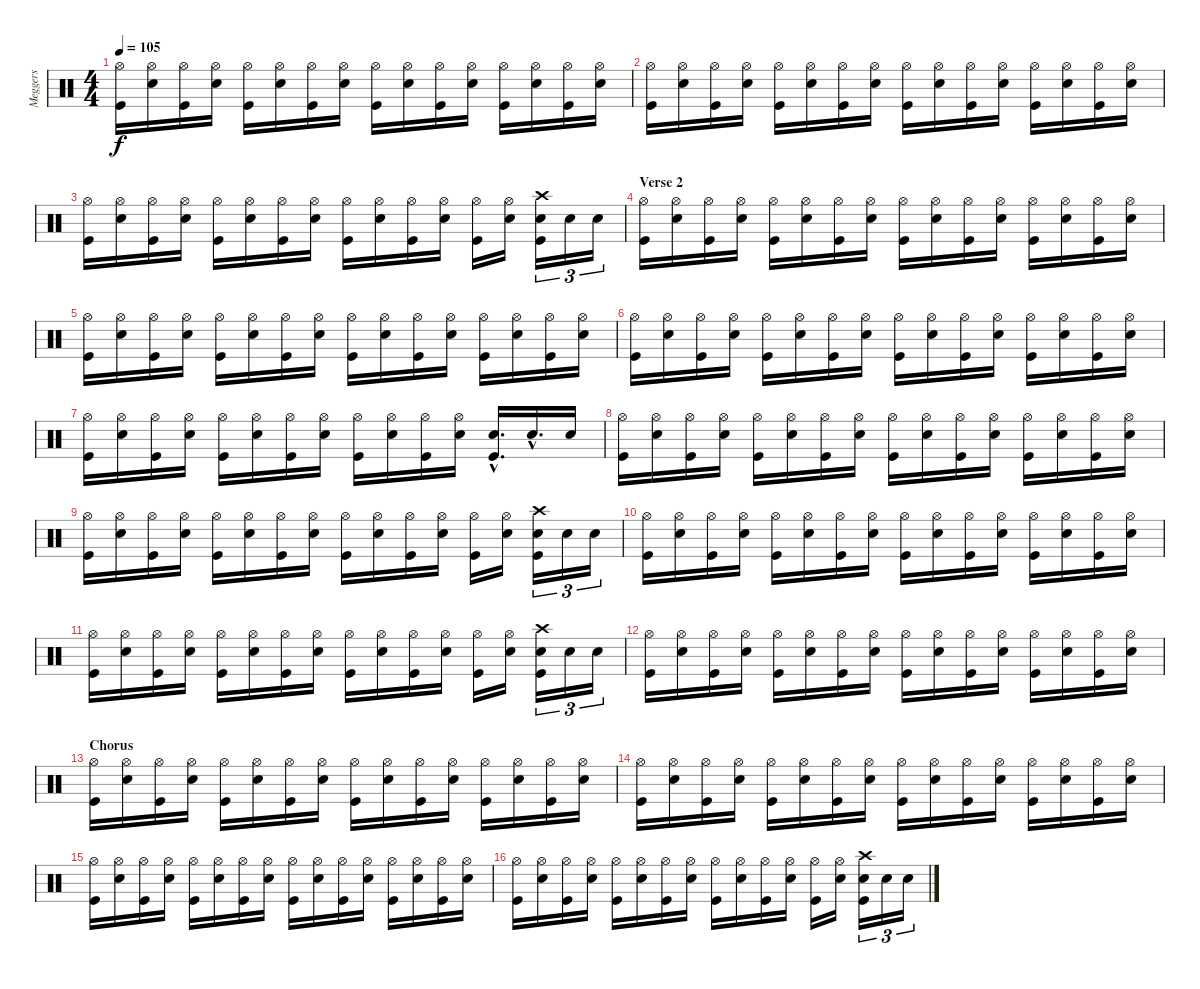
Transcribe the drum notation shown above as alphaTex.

\track ("Meggers" "Meggers") {instrument percussion}
\staff {score}
\articulation defaults
\ts (4 4)
\tempo 105
\clef neutral
\ks c
("Hi-Hat (open)" "Kick (hit)").16{dy f} ("Hi-Hat (open)" "Snare (hit) 2").16 ("Hi-Hat (open)" "Kick (hit)").16 ("Hi-Hat (open)" "Snare (hit) 2").16 ("Hi-Hat (open)" "Kick (hit)").16 ("Hi-Hat (open)" "Snare (hit) 2").16 ("Hi-Hat (open)" "Kick (hit)").16 ("Hi-Hat (open)" "Snare (hit) 2").16 ("Hi-Hat (open)" "Kick (hit)").16 ("Hi-Hat (open)" "Snare (hit) 2").16 ("Hi-Hat (open)" "Kick (hit)").16 ("Hi-Hat (open)" "Snare (hit) 2").16 ("Hi-Hat (open)" "Kick (hit)").16 ("Hi-Hat (open)" "Snare (hit) 2").16 ("Hi-Hat (open)" "Kick (hit)").16 ("Hi-Hat (open)" "Snare (hit) 2").16 |
("Hi-Hat (open)" "Kick (hit)").16 ("Hi-Hat (open)" "Snare (hit) 2").16 ("Hi-Hat (open)" "Kick (hit)").16 ("Hi-Hat (open)" "Snare (hit) 2").16 ("Hi-Hat (open)" "Kick (hit)").16 ("Hi-Hat (open)" "Snare (hit) 2").16 ("Hi-Hat (open)" "Kick (hit)").16 ("Hi-Hat (open)" "Snare (hit) 2").16 ("Hi-Hat (open)" "Kick (hit)").16 ("Hi-Hat (open)" "Snare (hit) 2").16 ("Hi-Hat (open)" "Kick (hit)").16 ("Hi-Hat (open)" "Snare (hit) 2").16 ("Hi-Hat (open)" "Kick (hit)").16 ("Hi-Hat (open)" "Snare (hit) 2").16 ("Hi-Hat (open)" "Kick (hit)").16 ("Hi-Hat (open)" "Snare (hit) 2").16 |
("Hi-Hat (open)" "Kick (hit)").16 ("Hi-Hat (open)" "Snare (hit) 2").16 ("Hi-Hat (open)" "Kick (hit)").16 ("Hi-Hat (open)" "Snare (hit) 2").16 ("Hi-Hat (open)" "Kick (hit)").16 ("Hi-Hat (open)" "Snare (hit) 2").16 ("Hi-Hat (open)" "Kick (hit)").16 ("Hi-Hat (open)" "Snare (hit) 2").16 ("Hi-Hat (open)" "Kick (hit)").16 ("Hi-Hat (open)" "Snare (hit) 2").16 ("Hi-Hat (open)" "Kick (hit)").16 ("Hi-Hat (open)" "Snare (hit) 2").16 ("Hi-Hat (open)" "Kick (hit)").16 ("Hi-Hat (open)" "Snare (hit) 2").16 ("Crash high (hit)" "Snare (hit) 2" "Kick (hit)").16{tu (3 2)} "Snare (hit) 2".16{tu (3 2)} "Snare (hit) 2".16{tu (3 2)} |
\section ("" "Verse 2")
("Hi-Hat (open)" "Kick (hit)").16 ("Hi-Hat (open)" "Snare (hit) 2").16 ("Hi-Hat (open)" "Kick (hit)").16 ("Hi-Hat (open)" "Snare (hit) 2").16 ("Hi-Hat (open)" "Kick (hit)").16 ("Hi-Hat (open)" "Snare (hit) 2").16 ("Hi-Hat (open)" "Kick (hit)").16 ("Hi-Hat (open)" "Snare (hit) 2").16 ("Hi-Hat (open)" "Kick (hit)").16 ("Hi-Hat (open)" "Snare (hit) 2").16 ("Hi-Hat (open)" "Kick (hit)").16 ("Hi-Hat (open)" "Snare (hit) 2").16 ("Hi-Hat (open)" "Kick (hit)").16 ("Hi-Hat (open)" "Snare (hit) 2").16 ("Hi-Hat (open)" "Kick (hit)").16 ("Hi-Hat (open)" "Snare (hit) 2").16 |
("Hi-Hat (open)" "Kick (hit)").16 ("Hi-Hat (open)" "Snare (hit) 2").16 ("Hi-Hat (open)" "Kick (hit)").16 ("Hi-Hat (open)" "Snare (hit) 2").16 ("Hi-Hat (open)" "Kick (hit)").16 ("Hi-Hat (open)" "Snare (hit) 2").16 ("Hi-Hat (open)" "Kick (hit)").16 ("Hi-Hat (open)" "Snare (hit) 2").16 ("Hi-Hat (open)" "Kick (hit)").16 ("Hi-Hat (open)" "Snare (hit) 2").16 ("Hi-Hat (open)" "Kick (hit)").16 ("Hi-Hat (open)" "Snare (hit) 2").16 ("Hi-Hat (open)" "Kick (hit)").16 ("Hi-Hat (open)" "Snare (hit) 2").16 ("Hi-Hat (open)" "Kick (hit)").16 ("Hi-Hat (open)" "Snare (hit) 2").16 |
("Hi-Hat (open)" "Kick (hit)").16 ("Hi-Hat (open)" "Snare (hit) 2").16 ("Hi-Hat (open)" "Kick (hit)").16 ("Hi-Hat (open)" "Snare (hit) 2").16 ("Hi-Hat (open)" "Kick (hit)").16 ("Hi-Hat (open)" "Snare (hit) 2").16 ("Hi-Hat (open)" "Kick (hit)").16 ("Hi-Hat (open)" "Snare (hit) 2").16 ("Hi-Hat (open)" "Kick (hit)").16 ("Hi-Hat (open)" "Snare (hit) 2").16 ("Hi-Hat (open)" "Kick (hit)").16 ("Hi-Hat (open)" "Snare (hit) 2").16 ("Hi-Hat (open)" "Kick (hit)").16 ("Hi-Hat (open)" "Snare (hit) 2").16 ("Hi-Hat (open)" "Kick (hit)").16 ("Hi-Hat (open)" "Snare (hit) 2").16 |
("Hi-Hat (open)" "Kick (hit)").16 ("Hi-Hat (open)" "Snare (hit) 2").16 ("Hi-Hat (open)" "Kick (hit)").16 ("Hi-Hat (open)" "Snare (hit) 2").16 ("Hi-Hat (open)" "Kick (hit)").16 ("Hi-Hat (open)" "Snare (hit) 2").16 ("Hi-Hat (open)" "Kick (hit)").16 ("Hi-Hat (open)" "Snare (hit) 2").16 ("Hi-Hat (open)" "Kick (hit)").16 ("Hi-Hat (open)" "Snare (hit) 2").16 ("Hi-Hat (open)" "Kick (hit)").16 ("Hi-Hat (open)" "Snare (hit) 2").16 ("Snare (hit) 2"{hac} "Kick (hit)"{hac}).16{d} "Snare (hit) 2"{hac}.16{d} "Snare (hit) 2".16 |
("Hi-Hat (open)" "Kick (hit)").16 ("Hi-Hat (open)" "Snare (hit) 2").16 ("Hi-Hat (open)" "Kick (hit)").16 ("Hi-Hat (open)" "Snare (hit) 2").16 ("Hi-Hat (open)" "Kick (hit)").16 ("Hi-Hat (open)" "Snare (hit) 2").16 ("Hi-Hat (open)" "Kick (hit)").16 ("Hi-Hat (open)" "Snare (hit) 2").16 ("Hi-Hat (open)" "Kick (hit)").16 ("Hi-Hat (open)" "Snare (hit) 2").16 ("Hi-Hat (open)" "Kick (hit)").16 ("Hi-Hat (open)" "Snare (hit) 2").16 ("Hi-Hat (open)" "Kick (hit)").16 ("Hi-Hat (open)" "Snare (hit) 2").16 ("Hi-Hat (open)" "Kick (hit)").16 ("Hi-Hat (open)" "Snare (hit) 2").16 |
("Hi-Hat (open)" "Kick (hit)").16 ("Hi-Hat (open)" "Snare (hit) 2").16 ("Hi-Hat (open)" "Kick (hit)").16 ("Hi-Hat (open)" "Snare (hit) 2").16 ("Hi-Hat (open)" "Kick (hit)").16 ("Hi-Hat (open)" "Snare (hit) 2").16 ("Hi-Hat (open)" "Kick (hit)").16 ("Hi-Hat (open)" "Snare (hit) 2").16 ("Hi-Hat (open)" "Kick (hit)").16 ("Hi-Hat (open)" "Snare (hit) 2").16 ("Hi-Hat (open)" "Kick (hit)").16 ("Hi-Hat (open)" "Snare (hit) 2").16 ("Hi-Hat (open)" "Kick (hit)").16 ("Hi-Hat (open)" "Snare (hit) 2").16 ("Crash high (hit)" "Snare (hit) 2" "Kick (hit)").16{tu (3 2)} "Snare (hit) 2".16{tu (3 2)} "Snare (hit) 2".16{tu (3 2)} |
("Hi-Hat (open)" "Kick (hit)").16 ("Hi-Hat (open)" "Snare (hit) 2").16 ("Hi-Hat (open)" "Kick (hit)").16 ("Hi-Hat (open)" "Snare (hit) 2").16 ("Hi-Hat (open)" "Kick (hit)").16 ("Hi-Hat (open)" "Snare (hit) 2").16 ("Hi-Hat (open)" "Kick (hit)").16 ("Hi-Hat (open)" "Snare (hit) 2").16 ("Hi-Hat (open)" "Kick (hit)").16 ("Hi-Hat (open)" "Snare (hit) 2").16 ("Hi-Hat (open)" "Kick (hit)").16 ("Hi-Hat (open)" "Snare (hit) 2").16 ("Hi-Hat (open)" "Kick (hit)").16 ("Hi-Hat (open)" "Snare (hit) 2").16 ("Hi-Hat (open)" "Kick (hit)").16 ("Hi-Hat (open)" "Snare (hit) 2").16 |
("Hi-Hat (open)" "Kick (hit)").16 ("Hi-Hat (open)" "Snare (hit) 2").16 ("Hi-Hat (open)" "Kick (hit)").16 ("Hi-Hat (open)" "Snare (hit) 2").16 ("Hi-Hat (open)" "Kick (hit)").16 ("Hi-Hat (open)" "Snare (hit) 2").16 ("Hi-Hat (open)" "Kick (hit)").16 ("Hi-Hat (open)" "Snare (hit) 2").16 ("Hi-Hat (open)" "Kick (hit)").16 ("Hi-Hat (open)" "Snare (hit) 2").16 ("Hi-Hat (open)" "Kick (hit)").16 ("Hi-Hat (open)" "Snare (hit) 2").16 ("Hi-Hat (open)" "Kick (hit)").16 ("Hi-Hat (open)" "Snare (hit) 2").16 ("Crash high (hit)" "Snare (hit) 2" "Kick (hit)").16{tu (3 2)} "Snare (hit) 2".16{tu (3 2)} "Snare (hit) 2".16{tu (3 2)} |
("Hi-Hat (open)" "Kick (hit)").16 ("Hi-Hat (open)" "Snare (hit) 2").16 ("Hi-Hat (open)" "Kick (hit)").16 ("Hi-Hat (open)" "Snare (hit) 2").16 ("Hi-Hat (open)" "Kick (hit)").16 ("Hi-Hat (open)" "Snare (hit) 2").16 ("Hi-Hat (open)" "Kick (hit)").16 ("Hi-Hat (open)" "Snare (hit) 2").16 ("Hi-Hat (open)" "Kick (hit)").16 ("Hi-Hat (open)" "Snare (hit) 2").16 ("Hi-Hat (open)" "Kick (hit)").16 ("Hi-Hat (open)" "Snare (hit) 2").16 ("Hi-Hat (open)" "Kick (hit)").16 ("Hi-Hat (open)" "Snare (hit) 2").16 ("Hi-Hat (open)" "Kick (hit)").16 ("Hi-Hat (open)" "Snare (hit) 2").16 |
\section ("" "Chorus")
("Hi-Hat (open)" "Kick (hit)").16 ("Hi-Hat (open)" "Snare (hit) 2").16 ("Hi-Hat (open)" "Kick (hit)").16 ("Hi-Hat (open)" "Snare (hit) 2").16 ("Hi-Hat (open)" "Kick (hit)").16 ("Hi-Hat (open)" "Snare (hit) 2").16 ("Hi-Hat (open)" "Kick (hit)").16 ("Hi-Hat (open)" "Snare (hit) 2").16 ("Hi-Hat (open)" "Kick (hit)").16 ("Hi-Hat (open)" "Snare (hit) 2").16 ("Hi-Hat (open)" "Kick (hit)").16 ("Hi-Hat (open)" "Snare (hit) 2").16 ("Hi-Hat (open)" "Kick (hit)").16 ("Hi-Hat (open)" "Snare (hit) 2").16 ("Hi-Hat (open)" "Kick (hit)").16 ("Hi-Hat (open)" "Snare (hit) 2").16 |
("Hi-Hat (open)" "Kick (hit)").16 ("Hi-Hat (open)" "Snare (hit) 2").16 ("Hi-Hat (open)" "Kick (hit)").16 ("Hi-Hat (open)" "Snare (hit) 2").16 ("Hi-Hat (open)" "Kick (hit)").16 ("Hi-Hat (open)" "Snare (hit) 2").16 ("Hi-Hat (open)" "Kick (hit)").16 ("Hi-Hat (open)" "Snare (hit) 2").16 ("Hi-Hat (open)" "Kick (hit)").16 ("Hi-Hat (open)" "Snare (hit) 2").16 ("Hi-Hat (open)" "Kick (hit)").16 ("Hi-Hat (open)" "Snare (hit) 2").16 ("Hi-Hat (open)" "Kick (hit)").16 ("Hi-Hat (open)" "Snare (hit) 2").16 ("Hi-Hat (open)" "Kick (hit)").16 ("Hi-Hat (open)" "Snare (hit) 2").16 |
("Hi-Hat (open)" "Kick (hit)").16 ("Hi-Hat (open)" "Snare (hit) 2").16 ("Hi-Hat (open)" "Kick (hit)").16 ("Hi-Hat (open)" "Snare (hit) 2").16 ("Hi-Hat (open)" "Kick (hit)").16 ("Hi-Hat (open)" "Snare (hit) 2").16 ("Hi-Hat (open)" "Kick (hit)").16 ("Hi-Hat (open)" "Snare (hit) 2").16 ("Hi-Hat (open)" "Kick (hit)").16 ("Hi-Hat (open)" "Snare (hit) 2").16 ("Hi-Hat (open)" "Kick (hit)").16 ("Hi-Hat (open)" "Snare (hit) 2").16 ("Hi-Hat (open)" "Kick (hit)").16 ("Hi-Hat (open)" "Snare (hit) 2").16 ("Hi-Hat (open)" "Kick (hit)").16 ("Hi-Hat (open)" "Snare (hit) 2").16 |
("Hi-Hat (open)" "Kick (hit)").16 ("Hi-Hat (open)" "Snare (hit) 2").16 ("Hi-Hat (open)" "Kick (hit)").16 ("Hi-Hat (open)" "Snare (hit) 2").16 ("Hi-Hat (open)" "Kick (hit)").16 ("Hi-Hat (open)" "Snare (hit) 2").16 ("Hi-Hat (open)" "Kick (hit)").16 ("Hi-Hat (open)" "Snare (hit) 2").16 ("Hi-Hat (open)" "Kick (hit)").16 ("Hi-Hat (open)" "Snare (hit) 2").16 ("Hi-Hat (open)" "Kick (hit)").16 ("Hi-Hat (open)" "Snare (hit) 2").16 ("Hi-Hat (open)" "Kick (hit)").16 ("Hi-Hat (open)" "Snare (hit) 2").16 ("Crash high (hit)" "Snare (hit) 2" "Kick (hit)").16{tu (3 2)} "Snare (hit) 2".16{tu (3 2)} "Snare (hit) 2".16{tu (3 2)}
